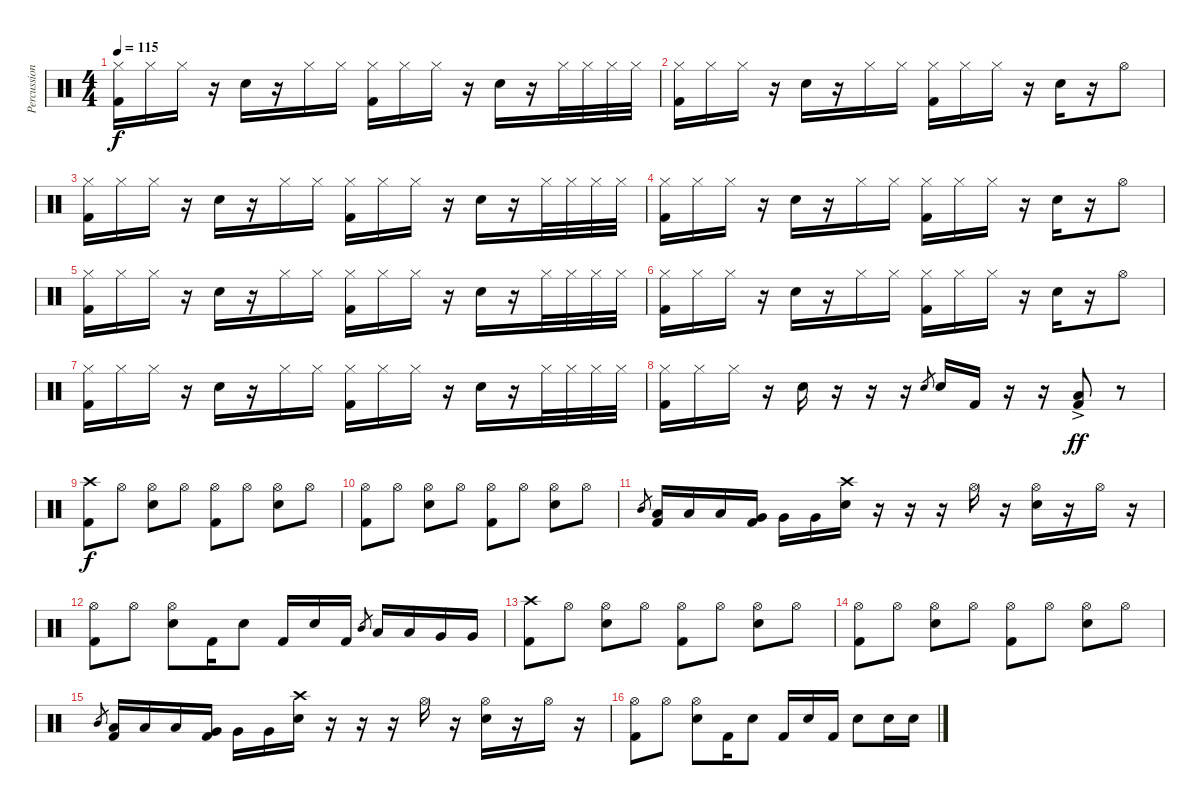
\track ("Percussion" "Percussion") {instrument percussion}
\staff {score}
\articulation defaults
\ts (4 4)
\tempo 115
\clef neutral
\ks c
("Hi-Hat (closed)" "Kick (hit) 2").16{dy f} "Hi-Hat (closed)".16 "Hi-Hat (closed)".16 r.16 "Snare (hit) 2".16 r.16 "Hi-Hat (closed)".16 "Hi-Hat (closed)".16 ("Hi-Hat (closed)" "Kick (hit) 2").16 "Hi-Hat (closed)".16 "Hi-Hat (closed)".16 r.16 "Snare (hit) 2".16 r.16 "Hi-Hat (closed)".32 "Hi-Hat (closed)".32 "Hi-Hat (closed)".32 "Hi-Hat (closed)".32 |
("Hi-Hat (closed)" "Kick (hit) 2").16 "Hi-Hat (closed)".16 "Hi-Hat (closed)".16 r.16 "Snare (hit) 2".16 r.16 "Hi-Hat (closed)".16 "Hi-Hat (closed)".16 ("Hi-Hat (closed)" "Kick (hit) 2").16 "Hi-Hat (closed)".16 "Hi-Hat (closed)".16 r.16 "Snare (hit) 2".16 r.16 "Hi-Hat (open)".8 |
("Hi-Hat (closed)" "Kick (hit) 2").16 "Hi-Hat (closed)".16 "Hi-Hat (closed)".16 r.16 "Snare (hit) 2".16 r.16 "Hi-Hat (closed)".16 "Hi-Hat (closed)".16 ("Hi-Hat (closed)" "Kick (hit) 2").16 "Hi-Hat (closed)".16 "Hi-Hat (closed)".16 r.16 "Snare (hit) 2".16 r.16 "Hi-Hat (closed)".32 "Hi-Hat (closed)".32 "Hi-Hat (closed)".32 "Hi-Hat (closed)".32 |
("Hi-Hat (closed)" "Kick (hit) 2").16 "Hi-Hat (closed)".16 "Hi-Hat (closed)".16 r.16 "Snare (hit) 2".16 r.16 "Hi-Hat (closed)".16 "Hi-Hat (closed)".16 ("Hi-Hat (closed)" "Kick (hit) 2").16 "Hi-Hat (closed)".16 "Hi-Hat (closed)".16 r.16 "Snare (hit) 2".16 r.16 "Hi-Hat (open)".8 |
("Hi-Hat (closed)" "Kick (hit) 2").16 "Hi-Hat (closed)".16 "Hi-Hat (closed)".16 r.16 "Snare (hit) 2".16 r.16 "Hi-Hat (closed)".16 "Hi-Hat (closed)".16 ("Hi-Hat (closed)" "Kick (hit) 2").16 "Hi-Hat (closed)".16 "Hi-Hat (closed)".16 r.16 "Snare (hit) 2".16 r.16 "Hi-Hat (closed)".32 "Hi-Hat (closed)".32 "Hi-Hat (closed)".32 "Hi-Hat (closed)".32 |
("Hi-Hat (closed)" "Kick (hit) 2").16 "Hi-Hat (closed)".16 "Hi-Hat (closed)".16 r.16 "Snare (hit) 2".16 r.16 "Hi-Hat (closed)".16 "Hi-Hat (closed)".16 ("Hi-Hat (closed)" "Kick (hit) 2").16 "Hi-Hat (closed)".16 "Hi-Hat (closed)".16 r.16 "Snare (hit) 2".16 r.16 "Hi-Hat (open)".8 |
("Hi-Hat (closed)" "Kick (hit) 2").16 "Hi-Hat (closed)".16 "Hi-Hat (closed)".16 r.16 "Snare (hit) 2".16 r.16 "Hi-Hat (closed)".16 "Hi-Hat (closed)".16 ("Hi-Hat (closed)" "Kick (hit) 2").16 "Hi-Hat (closed)".16 "Hi-Hat (closed)".16 r.16 "Snare (hit) 2".16 r.16 "Hi-Hat (closed)".32 "Hi-Hat (closed)".32 "Hi-Hat (closed)".32 "Hi-Hat (closed)".32 |
("Hi-Hat (closed)" "Kick (hit) 2").16 "Hi-Hat (closed)".16 "Hi-Hat (closed)".16 r.16 "Snare (hit) 2".16 r.16 r.16 r.16 "Snare (hit) 2".8{gr} "Snare (hit) 2".16 "Kick (hit) 2".16 r.16 r.16 ("Low Floor Tom (hit)" "Kick (hit) 2"{ac}).8{dy ff} r.8 |
("Crash high (hit)" "Kick (hit) 2").8{dy f} "Hi-Hat (open)".8 ("Hi-Hat (open)" "Snare (hit) 2").8 "Hi-Hat (open)".8 ("Hi-Hat (open)" "Kick (hit) 2").8 "Hi-Hat (open)".8 ("Hi-Hat (open)" "Snare (hit) 2").8 "Hi-Hat (open)".8 |
("Hi-Hat (open)" "Kick (hit) 2").8 "Hi-Hat (open)".8 ("Hi-Hat (open)" "Snare (hit) 2").8 "Hi-Hat (open)".8 ("Hi-Hat (open)" "Kick (hit) 2").8 "Hi-Hat (open)".8 ("Hi-Hat (open)" "Snare (hit) 2").8 "Hi-Hat (open)".8 |
"Mid Tom (hit)".8{gr} ("Low Tom (hit)" "Kick (hit) 2").16 "Low Tom (hit)".16 "Low Tom (hit)".16 ("Very Low Tom (hit)" "Kick (hit) 2").16 "Very Low Tom (hit)".16 "Very Low Tom (hit)".16 ("Crash high (hit)" "Snare (hit) 2").16 r.16 r.16 r.16 "Hi-Hat (open)".16 r.16 ("Hi-Hat (open)" "Snare (hit) 2").16 r.16 "Hi-Hat (open)".16 r.16 |
("Hi-Hat (open)" "Kick (hit) 2").8 "Hi-Hat (open)".8 ("Hi-Hat (open)" "Snare (hit) 2").8 "Kick (hit) 2".16 "Snare (hit) 2".8 "Kick (hit) 2".16 "Snare (hit) 2".16 "Kick (hit) 2".16 "Mid Tom (hit)".8{gr} "Low Tom (hit)".16 "Low Tom (hit)".16 "Very Low Tom (hit)".16 "Very Low Tom (hit)".16 |
("Crash high (hit)" "Kick (hit) 2").8 "Hi-Hat (open)".8 ("Hi-Hat (open)" "Snare (hit) 2").8 "Hi-Hat (open)".8 ("Hi-Hat (open)" "Kick (hit) 2").8 "Hi-Hat (open)".8 ("Hi-Hat (open)" "Snare (hit) 2").8 "Hi-Hat (open)".8 |
("Hi-Hat (open)" "Kick (hit) 2").8 "Hi-Hat (open)".8 ("Hi-Hat (open)" "Snare (hit) 2").8 "Hi-Hat (open)".8 ("Hi-Hat (open)" "Kick (hit) 2").8 "Hi-Hat (open)".8 ("Hi-Hat (open)" "Snare (hit) 2").8 "Hi-Hat (open)".8 |
"Mid Tom (hit)".8{gr} ("Low Tom (hit)" "Kick (hit) 2").16 "Low Tom (hit)".16 "Low Tom (hit)".16 ("Very Low Tom (hit)" "Kick (hit) 2").16 "Very Low Tom (hit)".16 "Very Low Tom (hit)".16 ("Crash high (hit)" "Snare (hit) 2").16 r.16 r.16 r.16 "Hi-Hat (open)".16 r.16 ("Hi-Hat (open)" "Snare (hit) 2").16 r.16 "Hi-Hat (open)".16 r.16 |
("Hi-Hat (open)" "Kick (hit) 2").8 "Hi-Hat (open)".8 ("Hi-Hat (open)" "Snare (hit) 2").8 "Kick (hit) 2".16 "Snare (hit) 2".8 "Kick (hit) 2".16 "Snare (hit) 2".16 "Kick (hit) 2".16 "Snare (hit) 2".8 "Snare (hit) 2".16 "Snare (hit) 2".16
